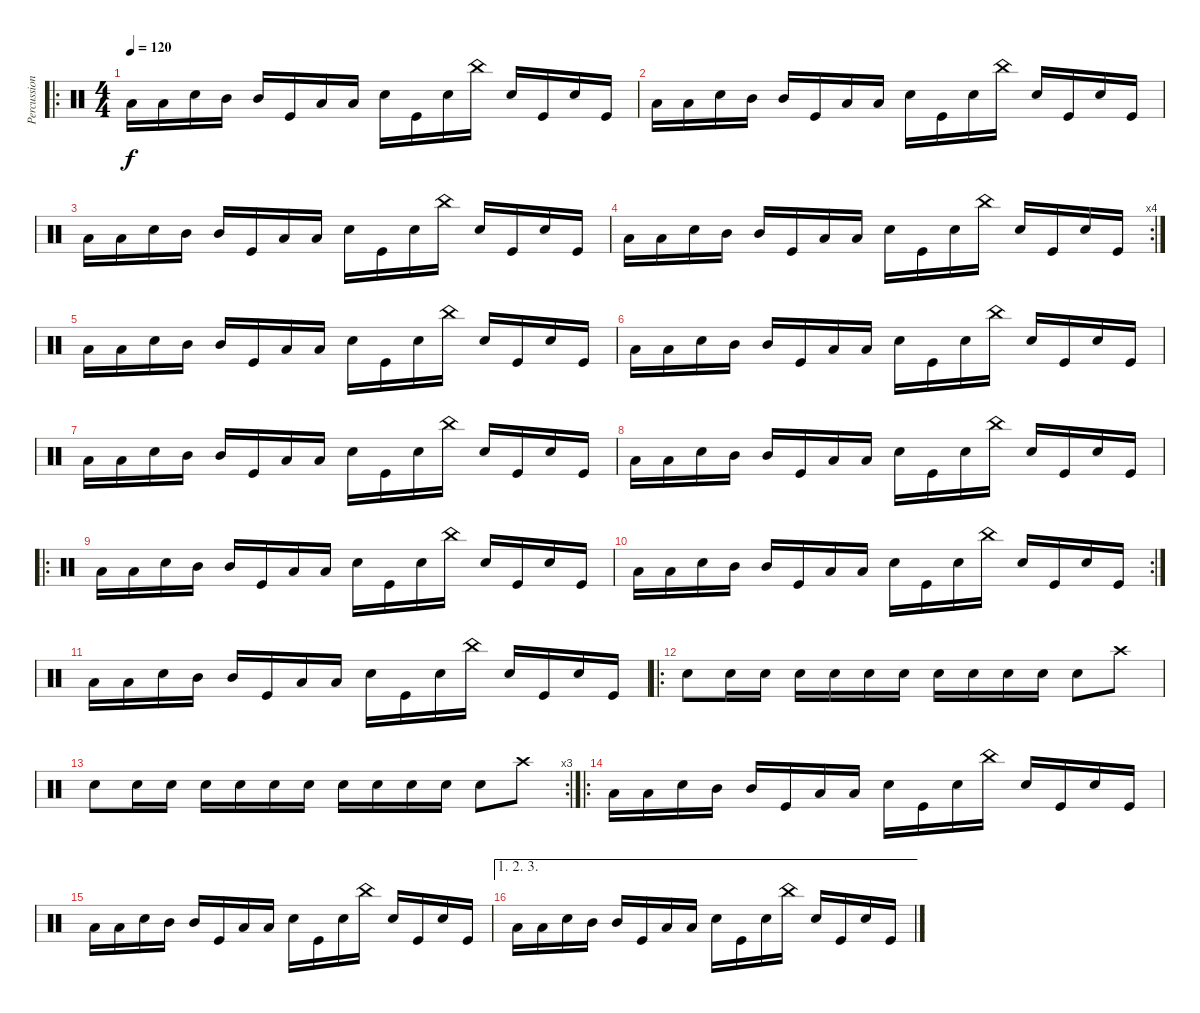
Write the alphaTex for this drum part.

\track ("Percussion" "Percussion") {instrument percussion}
\staff {score}
\articulation defaults
\ro
\ts (4 4)
\tempo 120
\clef neutral
\ks c "Low Tom (hit)".16{dy f} "Low Tom (hit)".16 "Electric Snare (hit)".16 "Mid Tom (hit)".16 "Mid Tom (hit)".16 "Kick (hit)".16 "Low Tom (hit)".16 "Low Tom (hit)".16 "Electric Snare (hit)".16 "Kick (hit)".16 "Electric Snare (hit)".16 "China (hit)".16 "Electric Snare (hit)".16 "Kick (hit)".16 "Electric Snare (hit)".16 "Kick (hit)".16
|
"Low Tom (hit)".16 "Low Tom (hit)".16 "Electric Snare (hit)".16 "Mid Tom (hit)".16 "Mid Tom (hit)".16 "Kick (hit)".16 "Low Tom (hit)".16 "Low Tom (hit)".16 "Electric Snare (hit)".16 "Kick (hit)".16 "Electric Snare (hit)".16 "China (hit)".16 "Electric Snare (hit)".16 "Kick (hit)".16 "Electric Snare (hit)".16 "Kick (hit)".16 |
"Low Tom (hit)".16 "Low Tom (hit)".16 "Electric Snare (hit)".16 "Mid Tom (hit)".16 "Mid Tom (hit)".16 "Kick (hit)".16 "Low Tom (hit)".16 "Low Tom (hit)".16 "Electric Snare (hit)".16 "Kick (hit)".16 "Electric Snare (hit)".16 "China (hit)".16 "Electric Snare (hit)".16 "Kick (hit)".16 "Electric Snare (hit)".16 "Kick (hit)".16 |
\rc 4 "Low Tom (hit)".16 "Low Tom (hit)".16 "Electric Snare (hit)".16 "Mid Tom (hit)".16 "Mid Tom (hit)".16 "Kick (hit)".16 "Low Tom (hit)".16 "Low Tom (hit)".16 "Electric Snare (hit)".16 "Kick (hit)".16 "Electric Snare (hit)".16 "China (hit)".16 "Electric Snare (hit)".16 "Kick (hit)".16 "Electric Snare (hit)".16 "Kick (hit)".16
|
"Low Tom (hit)".16 "Low Tom (hit)".16 "Electric Snare (hit)".16 "Mid Tom (hit)".16 "Mid Tom (hit)".16 "Kick (hit)".16 "Low Tom (hit)".16 "Low Tom (hit)".16 "Electric Snare (hit)".16 "Kick (hit)".16 "Electric Snare (hit)".16 "China (hit)".16 "Electric Snare (hit)".16 "Kick (hit)".16 "Electric Snare (hit)".16 "Kick (hit)".16 |
"Low Tom (hit)".16 "Low Tom (hit)".16 "Electric Snare (hit)".16 "Mid Tom (hit)".16 "Mid Tom (hit)".16 "Kick (hit)".16 "Low Tom (hit)".16 "Low Tom (hit)".16 "Electric Snare (hit)".16 "Kick (hit)".16 "Electric Snare (hit)".16 "China (hit)".16 "Electric Snare (hit)".16 "Kick (hit)".16 "Electric Snare (hit)".16 "Kick (hit)".16 |
"Low Tom (hit)".16 "Low Tom (hit)".16 "Electric Snare (hit)".16 "Mid Tom (hit)".16 "Mid Tom (hit)".16 "Kick (hit)".16 "Low Tom (hit)".16 "Low Tom (hit)".16 "Electric Snare (hit)".16 "Kick (hit)".16 "Electric Snare (hit)".16 "China (hit)".16 "Electric Snare (hit)".16 "Kick (hit)".16 "Electric Snare (hit)".16 "Kick (hit)".16 |
"Low Tom (hit)".16 "Low Tom (hit)".16 "Electric Snare (hit)".16 "Mid Tom (hit)".16 "Mid Tom (hit)".16 "Kick (hit)".16 "Low Tom (hit)".16 "Low Tom (hit)".16 "Electric Snare (hit)".16 "Kick (hit)".16 "Electric Snare (hit)".16 "China (hit)".16 "Electric Snare (hit)".16 "Kick (hit)".16 "Electric Snare (hit)".16 "Kick (hit)".16 |
\ro "Low Tom (hit)".16 "Low Tom (hit)".16 "Electric Snare (hit)".16 "Mid Tom (hit)".16 "Mid Tom (hit)".16 "Kick (hit)".16 "Low Tom (hit)".16 "Low Tom (hit)".16 "Electric Snare (hit)".16 "Kick (hit)".16 "Electric Snare (hit)".16 "China (hit)".16 "Electric Snare (hit)".16 "Kick (hit)".16 "Electric Snare (hit)".16 "Kick (hit)".16
|
\rc 2 "Low Tom (hit)".16 "Low Tom (hit)".16 "Electric Snare (hit)".16 "Mid Tom (hit)".16 "Mid Tom (hit)".16 "Kick (hit)".16 "Low Tom (hit)".16 "Low Tom (hit)".16 "Electric Snare (hit)".16 "Kick (hit)".16 "Electric Snare (hit)".16 "China (hit)".16 "Electric Snare (hit)".16 "Kick (hit)".16 "Electric Snare (hit)".16 "Kick (hit)".16
|
"Low Tom (hit)".16 "Low Tom (hit)".16 "Electric Snare (hit)".16 "Mid Tom (hit)".16 "Mid Tom (hit)".16 "Kick (hit)".16 "Low Tom (hit)".16 "Low Tom (hit)".16 "Electric Snare (hit)".16 "Kick (hit)".16 "Electric Snare (hit)".16 "China (hit)".16 "Electric Snare (hit)".16 "Kick (hit)".16 "Electric Snare (hit)".16 "Kick (hit)".16 |
\ro "Electric Snare (hit)".8 "Electric Snare (hit)".16 "Electric Snare (hit)".16 "Electric Snare (hit)".16 "Electric Snare (hit)".16 "Electric Snare (hit)".16 "Electric Snare (hit)".16 "Electric Snare (hit)".16 "Electric Snare (hit)".16 "Electric Snare (hit)".16 "Electric Snare (hit)".16 "Electric Snare (hit)".8 "Crash high (hit)".8
|
\rc 3 "Electric Snare (hit)".8 "Electric Snare (hit)".16 "Electric Snare (hit)".16 "Electric Snare (hit)".16 "Electric Snare (hit)".16 "Electric Snare (hit)".16 "Electric Snare (hit)".16 "Electric Snare (hit)".16 "Electric Snare (hit)".16 "Electric Snare (hit)".16 "Electric Snare (hit)".16 "Electric Snare (hit)".8 "Crash high (hit)".8
|
\ro "Low Tom (hit)".16 "Low Tom (hit)".16 "Electric Snare (hit)".16 "Mid Tom (hit)".16 "Mid Tom (hit)".16 "Kick (hit)".16 "Low Tom (hit)".16 "Low Tom (hit)".16 "Electric Snare (hit)".16 "Kick (hit)".16 "Electric Snare (hit)".16 "China (hit)".16 "Electric Snare (hit)".16 "Kick (hit)".16 "Electric Snare (hit)".16 "Kick (hit)".16
|
"Low Tom (hit)".16 "Low Tom (hit)".16 "Electric Snare (hit)".16 "Mid Tom (hit)".16 "Mid Tom (hit)".16 "Kick (hit)".16 "Low Tom (hit)".16 "Low Tom (hit)".16 "Electric Snare (hit)".16 "Kick (hit)".16 "Electric Snare (hit)".16 "China (hit)".16 "Electric Snare (hit)".16 "Kick (hit)".16 "Electric Snare (hit)".16 "Kick (hit)".16 |
\ae (1 2 3)
"Low Tom (hit)".16 "Low Tom (hit)".16 "Electric Snare (hit)".16 "Mid Tom (hit)".16 "Mid Tom (hit)".16 "Kick (hit)".16 "Low Tom (hit)".16 "Low Tom (hit)".16 "Electric Snare (hit)".16 "Kick (hit)".16 "Electric Snare (hit)".16 "China (hit)".16 "Electric Snare (hit)".16 "Kick (hit)".16 "Electric Snare (hit)".16 "Kick (hit)".16
